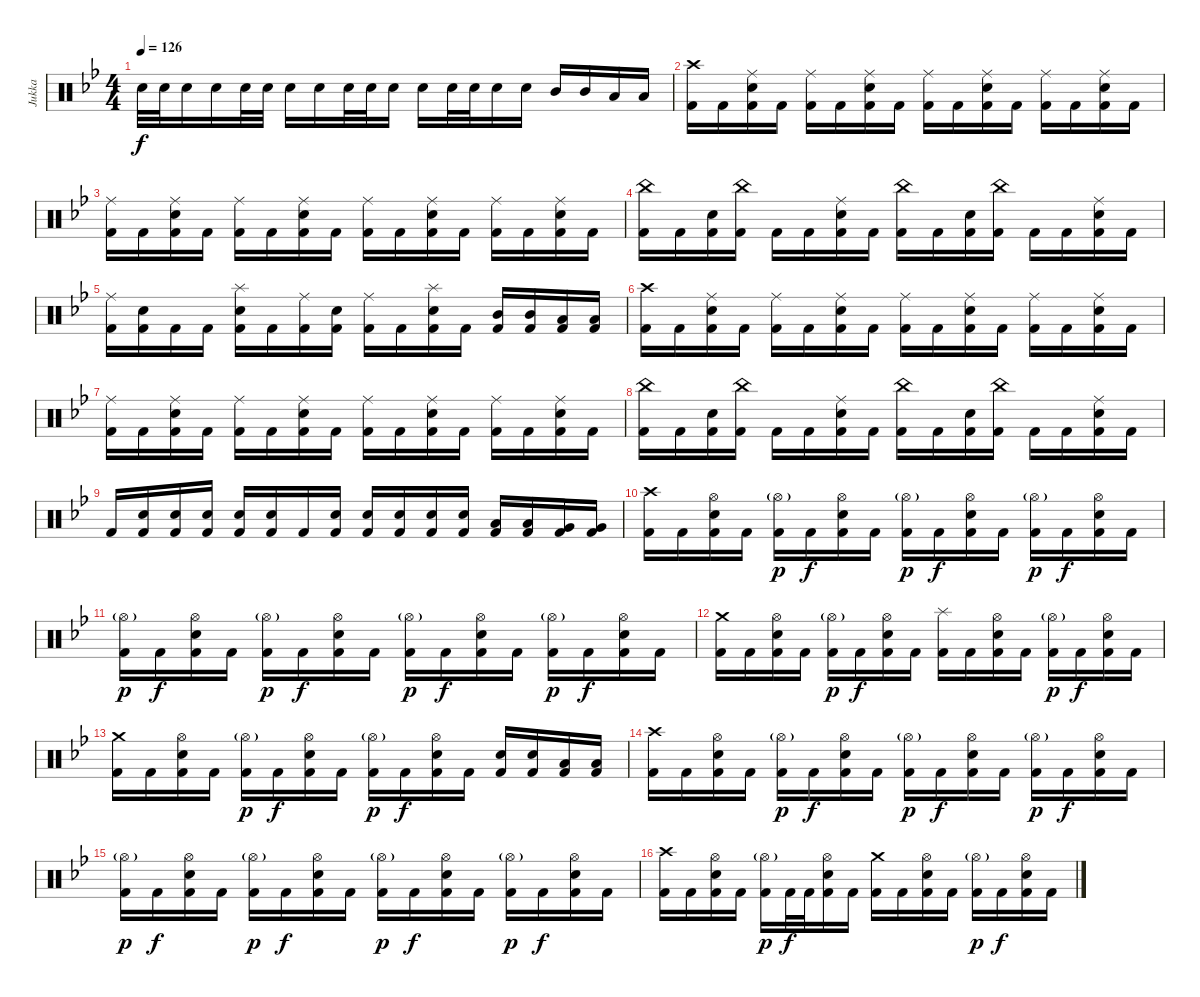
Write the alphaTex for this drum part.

\track ("Jukka" "Jukka") {instrument percussion}
\staff {score}
\articulation defaults
\ts (4 4)
\tempo 126
\clef neutral
\ks gminor "Electric Snare (hit)".32{dy f} "Electric Snare (hit)".32 "Electric Snare (hit)".16 "Electric Snare (hit)".16 "Electric Snare (hit)".32 "Electric Snare (hit)".32 "Electric Snare (hit)".16 "Electric Snare (hit)".16 "Electric Snare (hit)".32 "Electric Snare (hit)".32 "Electric Snare (hit)".16 "Electric Snare (hit)".16 "Electric Snare (hit)".32 "Electric Snare (hit)".32 "Electric Snare (hit)".16 "Electric Snare (hit)".16 "Mid Tom (hit)".16 "Mid Tom (hit)".16 "Low Tom (hit)".16 "Low Tom (hit)".16
|
("Crash high (hit)" "Kick (hit) 2").16 "Kick (hit) 2".16 ("Ride (middle)" "Electric Snare (hit)" "Kick (hit) 2").16 "Kick (hit) 2".16 ("Ride (middle)" "Kick (hit) 2").16 "Kick (hit) 2".16 ("Ride (middle)" "Electric Snare (hit)" "Kick (hit) 2").16 "Kick (hit) 2".16 ("Ride (middle)" "Kick (hit) 2").16 "Kick (hit) 2".16 ("Ride (middle)" "Electric Snare (hit)" "Kick (hit) 2").16 "Kick (hit) 2".16 ("Ride (middle)" "Kick (hit) 2").16 "Kick (hit) 2".16 ("Ride (middle)" "Electric Snare (hit)" "Kick (hit) 2").16 "Kick (hit) 2".16 |
("Ride (middle)" "Kick (hit) 2").16 "Kick (hit) 2".16 ("Ride (middle)" "Electric Snare (hit)" "Kick (hit) 2").16 "Kick (hit) 2".16 ("Ride (middle)" "Kick (hit) 2").16 "Kick (hit) 2".16 ("Ride (middle)" "Electric Snare (hit)" "Kick (hit) 2").16 "Kick (hit) 2".16 ("Ride (middle)" "Kick (hit) 2").16 "Kick (hit) 2".16 ("Ride (middle)" "Electric Snare (hit)" "Kick (hit) 2").16 "Kick (hit) 2".16 ("Ride (middle)" "Kick (hit) 2").16 "Kick (hit) 2".16 ("Ride (middle)" "Electric Snare (hit)" "Kick (hit) 2").16 "Kick (hit) 2".16 |
("China (hit)" "Kick (hit) 2").16 "Kick (hit) 2".16 ("Electric Snare (hit)" "Kick (hit) 2").16 ("China (hit)" "Kick (hit) 2").16 "Kick (hit) 2".16 "Kick (hit) 2".16 ("Ride (middle)" "Electric Snare (hit)" "Kick (hit) 2").16 "Kick (hit) 2".16 ("China (hit)" "Kick (hit) 2").16 "Kick (hit) 2".16 ("Electric Snare (hit)" "Kick (hit) 2").16 ("China (hit)" "Kick (hit) 2").16 "Kick (hit) 2".16 "Kick (hit) 2".16 ("Ride (middle)" "Electric Snare (hit)" "Kick (hit) 2").16 "Kick (hit) 2".16 |
("Ride (middle)" "Kick (hit) 2").16 ("Electric Snare (hit)" "Kick (hit) 2").16 "Kick (hit) 2".16 "Kick (hit) 2".16 ("Splash (hit)" "Electric Snare (hit)" "Kick (hit) 2").16 "Kick (hit) 2".16 ("Ride (middle)" "Kick (hit) 2").16 ("Electric Snare (hit)" "Kick (hit) 2").16 ("Ride (middle)" "Kick (hit) 2").16 "Kick (hit) 2".16 ("Splash (hit)" "Electric Snare (hit)" "Kick (hit) 2").16 "Kick (hit) 2".16 ("Mid Tom (hit)" "Kick (hit) 2").16 ("Mid Tom (hit)" "Kick (hit) 2").16 ("Low Tom (hit)" "Kick (hit) 2").16 ("Low Tom (hit)" "Kick (hit) 2").16 |
("Crash high (hit)" "Kick (hit) 2").16 "Kick (hit) 2".16 ("Ride (middle)" "Electric Snare (hit)" "Kick (hit) 2").16 "Kick (hit) 2".16 ("Ride (middle)" "Kick (hit) 2").16 "Kick (hit) 2".16 ("Ride (middle)" "Electric Snare (hit)" "Kick (hit) 2").16 "Kick (hit) 2".16 ("Ride (middle)" "Kick (hit) 2").16 "Kick (hit) 2".16 ("Ride (middle)" "Electric Snare (hit)" "Kick (hit) 2").16 "Kick (hit) 2".16 ("Ride (middle)" "Kick (hit) 2").16 "Kick (hit) 2".16 ("Ride (middle)" "Electric Snare (hit)" "Kick (hit) 2").16 "Kick (hit) 2".16 |
("Ride (middle)" "Kick (hit) 2").16 "Kick (hit) 2".16 ("Ride (middle)" "Electric Snare (hit)" "Kick (hit) 2").16 "Kick (hit) 2".16 ("Ride (middle)" "Kick (hit) 2").16 "Kick (hit) 2".16 ("Ride (middle)" "Electric Snare (hit)" "Kick (hit) 2").16 "Kick (hit) 2".16 ("Ride (middle)" "Kick (hit) 2").16 "Kick (hit) 2".16 ("Ride (middle)" "Electric Snare (hit)" "Kick (hit) 2").16 "Kick (hit) 2".16 ("Ride (middle)" "Kick (hit) 2").16 "Kick (hit) 2".16 ("Ride (middle)" "Electric Snare (hit)" "Kick (hit) 2").16 "Kick (hit) 2".16 |
("China (hit)" "Kick (hit) 2").16 "Kick (hit) 2".16 ("Electric Snare (hit)" "Kick (hit) 2").16 ("China (hit)" "Kick (hit) 2").16 "Kick (hit) 2".16 "Kick (hit) 2".16 ("Ride (middle)" "Electric Snare (hit)" "Kick (hit) 2").16 "Kick (hit) 2".16 ("China (hit)" "Kick (hit) 2").16 "Kick (hit) 2".16 ("Electric Snare (hit)" "Kick (hit) 2").16 ("China (hit)" "Kick (hit) 2").16 "Kick (hit) 2".16 "Kick (hit) 2".16 ("Ride (middle)" "Electric Snare (hit)" "Kick (hit) 2").16 "Kick (hit) 2".16 |
"Kick (hit) 2".16 ("Electric Snare (hit)" "Kick (hit) 2").16 ("Electric Snare (hit)" "Kick (hit) 2").16 ("Electric Snare (hit)" "Kick (hit) 2").16 ("Electric Snare (hit)" "Kick (hit) 2").16 ("Electric Snare (hit)" "Kick (hit) 2").16 "Kick (hit) 2".16 ("Electric Snare (hit)" "Kick (hit) 2").16 ("Electric Snare (hit)" "Kick (hit) 2").16 ("Electric Snare (hit)" "Kick (hit) 2").16 ("Electric Snare (hit)" "Kick (hit) 2").16 ("Electric Snare (hit)" "Kick (hit) 2").16 ("Low Tom (hit)" "Kick (hit) 2").16 ("Low Tom (hit)" "Kick (hit) 2").16 ("Very Low Tom (hit)" "Kick (hit) 2").16 ("Very Low Tom (hit)" "Kick (hit) 2").16 |
("Crash high (hit)" "Kick (hit) 2").16 "Kick (hit) 2".16 ("Hi-Hat (open)" "Electric Snare (hit)" "Kick (hit) 2").16 "Kick (hit) 2".16 ("Hi-Hat (open)"{g} "Kick (hit) 2").16{dy p} "Kick (hit) 2".16{dy f} ("Hi-Hat (open)" "Electric Snare (hit)" "Kick (hit) 2").16 "Kick (hit) 2".16 ("Hi-Hat (open)"{g} "Kick (hit) 2").16{dy p} "Kick (hit) 2".16{dy f} ("Hi-Hat (open)" "Electric Snare (hit)" "Kick (hit) 2").16 "Kick (hit) 2".16 ("Hi-Hat (open)"{g} "Kick (hit) 2").16{dy p} "Kick (hit) 2".16{dy f} ("Hi-Hat (open)" "Electric Snare (hit)" "Kick (hit) 2").16 "Kick (hit) 2".16 |
("Hi-Hat (open)"{g} "Kick (hit) 2").16{dy p} "Kick (hit) 2".16{dy f} ("Hi-Hat (open)" "Electric Snare (hit)" "Kick (hit) 2").16 "Kick (hit) 2".16 ("Hi-Hat (open)"{g} "Kick (hit) 2").16{dy p} "Kick (hit) 2".16{dy f} ("Hi-Hat (open)" "Electric Snare (hit)" "Kick (hit) 2").16 "Kick (hit) 2".16 ("Hi-Hat (open)"{g} "Kick (hit) 2").16{dy p} "Kick (hit) 2".16{dy f} ("Hi-Hat (open)" "Electric Snare (hit)" "Kick (hit) 2").16 "Kick (hit) 2".16 ("Hi-Hat (open)"{g} "Kick (hit) 2").16{dy p} "Kick (hit) 2".16{dy f} ("Hi-Hat (open)" "Electric Snare (hit)" "Kick (hit) 2").16 "Kick (hit) 2".16 |
("Crash medium (hit)" "Kick (hit) 2").16 "Kick (hit) 2".16 ("Hi-Hat (open)" "Electric Snare (hit)" "Kick (hit) 2").16 "Kick (hit) 2".16 ("Hi-Hat (open)"{g} "Kick (hit) 2").16{dy p} "Kick (hit) 2".16{dy f} ("Hi-Hat (open)" "Electric Snare (hit)" "Kick (hit) 2").16 "Kick (hit) 2".16 ("Splash (hit)" "Kick (hit) 2").16 "Kick (hit) 2".16 ("Hi-Hat (open)" "Electric Snare (hit)" "Kick (hit) 2").16 "Kick (hit) 2".16 ("Hi-Hat (open)"{g} "Kick (hit) 2").16{dy p} "Kick (hit) 2".16{dy f} ("Hi-Hat (open)" "Electric Snare (hit)" "Kick (hit) 2").16 "Kick (hit) 2".16 |
("Crash medium (hit)" "Kick (hit) 2").16 "Kick (hit) 2".16 ("Hi-Hat (open)" "Electric Snare (hit)" "Kick (hit) 2").16 "Kick (hit) 2".16 ("Hi-Hat (open)"{g} "Kick (hit) 2").16{dy p} "Kick (hit) 2".16{dy f} ("Hi-Hat (open)" "Electric Snare (hit)" "Kick (hit) 2").16 "Kick (hit) 2".16 ("Hi-Hat (open)"{g} "Kick (hit) 2").16{dy p} "Kick (hit) 2".16{dy f} ("Hi-Hat (open)" "Electric Snare (hit)" "Kick (hit) 2").16 "Kick (hit) 2".16 ("Electric Snare (hit)" "Kick (hit) 2").16 ("Electric Snare (hit)" "Kick (hit) 2").16 ("Low Tom (hit)" "Kick (hit) 2").16 ("Low Tom (hit)" "Kick (hit) 2").16 |
("Crash high (hit)" "Kick (hit) 2").16 "Kick (hit) 2".16 ("Hi-Hat (open)" "Electric Snare (hit)" "Kick (hit) 2").16 "Kick (hit) 2".16 ("Hi-Hat (open)"{g} "Kick (hit) 2").16{dy p} "Kick (hit) 2".16{dy f} ("Hi-Hat (open)" "Electric Snare (hit)" "Kick (hit) 2").16 "Kick (hit) 2".16 ("Hi-Hat (open)"{g} "Kick (hit) 2").16{dy p} "Kick (hit) 2".16{dy f} ("Hi-Hat (open)" "Electric Snare (hit)" "Kick (hit) 2").16 "Kick (hit) 2".16 ("Hi-Hat (open)"{g} "Kick (hit) 2").16{dy p} "Kick (hit) 2".16{dy f} ("Hi-Hat (open)" "Electric Snare (hit)" "Kick (hit) 2").16 "Kick (hit) 2".16 |
("Hi-Hat (open)"{g} "Kick (hit) 2").16{dy p} "Kick (hit) 2".16{dy f} ("Hi-Hat (open)" "Electric Snare (hit)" "Kick (hit) 2").16 "Kick (hit) 2".16 ("Hi-Hat (open)"{g} "Kick (hit) 2").16{dy p} "Kick (hit) 2".16{dy f} ("Hi-Hat (open)" "Electric Snare (hit)" "Kick (hit) 2").16 "Kick (hit) 2".16 ("Hi-Hat (open)"{g} "Kick (hit) 2").16{dy p} "Kick (hit) 2".16{dy f} ("Hi-Hat (open)" "Electric Snare (hit)" "Kick (hit) 2").16 "Kick (hit) 2".16 ("Hi-Hat (open)"{g} "Kick (hit) 2").16{dy p} "Kick (hit) 2".16{dy f} ("Hi-Hat (open)" "Electric Snare (hit)" "Kick (hit) 2").16 "Kick (hit) 2".16 |
("Crash high (hit)" "Kick (hit) 2").16 "Kick (hit) 2".16 ("Hi-Hat (open)" "Electric Snare (hit)" "Kick (hit) 2").16 "Kick (hit) 2".16 ("Hi-Hat (open)"{g} "Kick (hit) 2").16{dy p} "Kick (hit) 2".32{dy f} "Kick (hit) 2".32 ("Hi-Hat (open)" "Electric Snare (hit)" "Kick (hit) 2").16 "Kick (hit) 2".16 ("Crash medium (hit)" "Kick (hit) 2").16 "Kick (hit) 2".16 ("Hi-Hat (open)" "Electric Snare (hit)" "Kick (hit) 2").16 "Kick (hit) 2".16 ("Hi-Hat (open)"{g} "Kick (hit) 2").16{dy p} "Kick (hit) 2".16{dy f} ("Hi-Hat (open)" "Electric Snare (hit)" "Kick (hit) 2").16 "Kick (hit) 2".16
